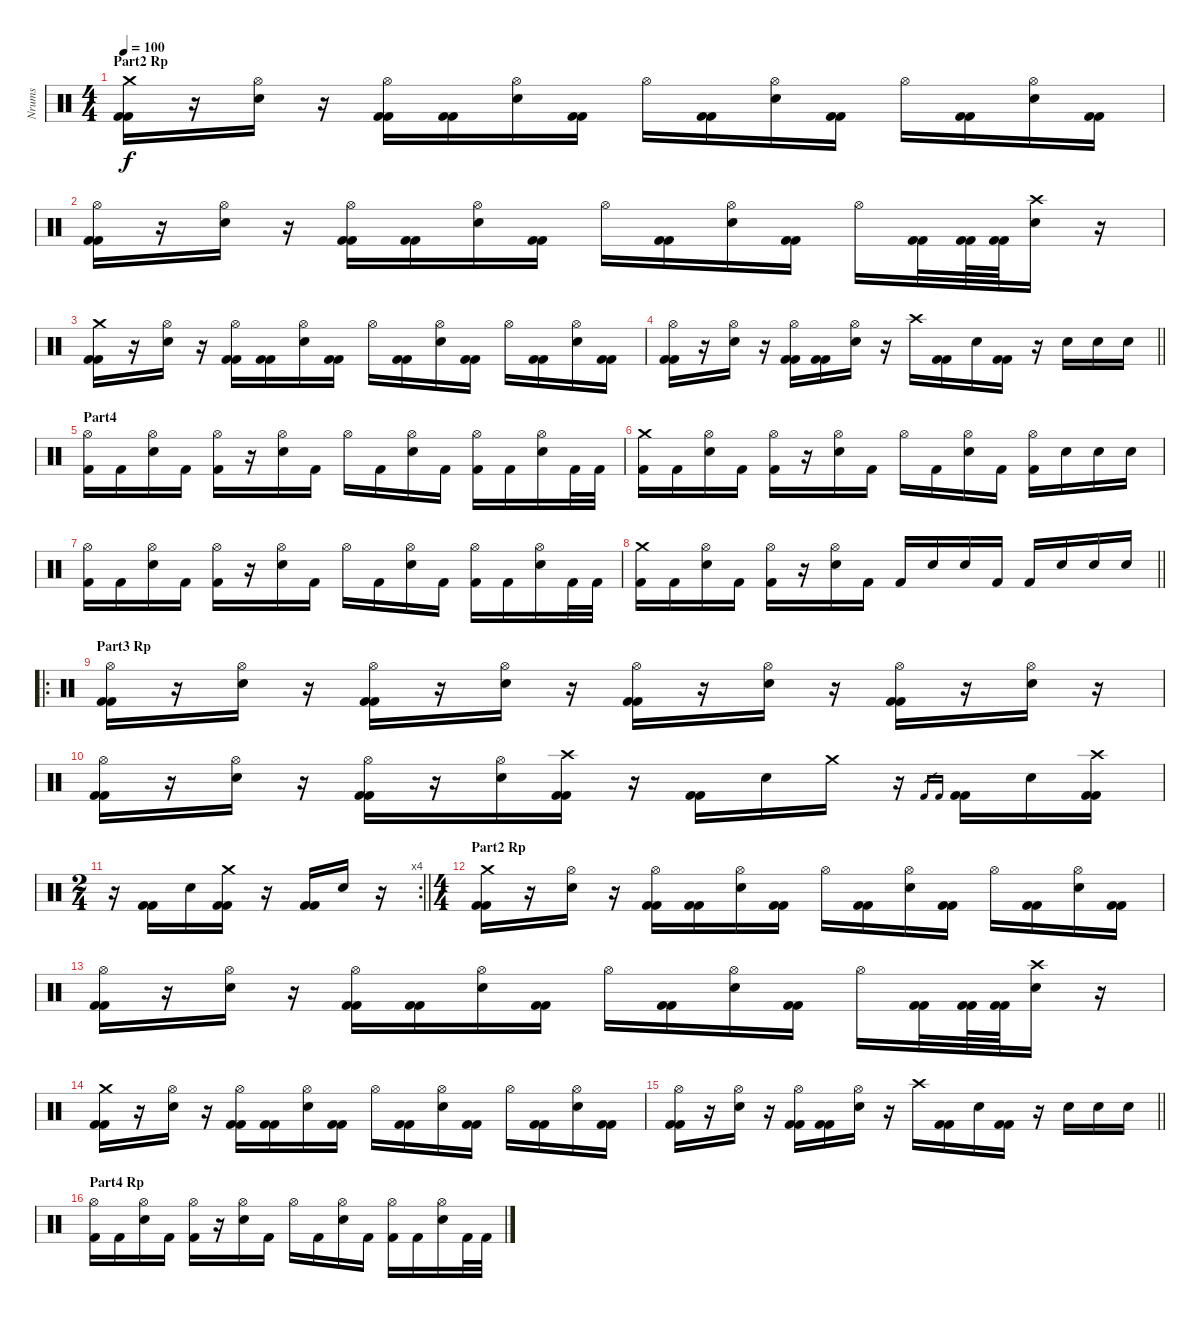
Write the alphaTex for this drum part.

\track ("Nrums" "Nrums") {instrument percussion}
\staff {score}
\articulation defaults
\ts (4 4)
\section ("" "Part2 Rp")
\tempo 100
\clef neutral
\ks c
("Crash medium (hit)" "Kick (hit) 2" "Kick (hit) 2").16{dy f} r.16 ("Hi-Hat (open)" "Electric Snare (hit)").16 r.16 ("Hi-Hat (open)" "Kick (hit) 2" "Kick (hit) 2").16 ("Kick (hit) 2" "Kick (hit) 2").16 ("Hi-Hat (open)" "Electric Snare (hit)").16 ("Kick (hit) 2" "Kick (hit) 2").16 "Hi-Hat (open)".16 ("Kick (hit) 2" "Kick (hit) 2").16 ("Hi-Hat (open)" "Electric Snare (hit)").16 ("Kick (hit) 2" "Kick (hit) 2").16 "Hi-Hat (open)".16 ("Kick (hit) 2" "Kick (hit) 2").16 ("Hi-Hat (open)" "Electric Snare (hit)").16 ("Kick (hit) 2" "Kick (hit) 2").16 |
("Hi-Hat (open)" "Kick (hit) 2" "Kick (hit) 2").16 r.16 ("Hi-Hat (open)" "Electric Snare (hit)").16 r.16 ("Hi-Hat (open)" "Kick (hit) 2" "Kick (hit) 2").16 ("Kick (hit) 2" "Kick (hit) 2").16 ("Hi-Hat (open)" "Electric Snare (hit)").16 ("Kick (hit) 2" "Kick (hit) 2").16 "Hi-Hat (open)".16 ("Kick (hit) 2" "Kick (hit) 2").16 ("Hi-Hat (open)" "Electric Snare (hit)").16 ("Kick (hit) 2" "Kick (hit) 2").16 "Hi-Hat (open)".16 ("Kick (hit) 2" "Kick (hit) 2").32 ("Kick (hit) 2" "Kick (hit) 2").64 ("Kick (hit) 2" "Kick (hit) 2").64 ("Crash high (hit)" "Electric Snare (hit)").16 r.16 |
("Crash medium (hit)" "Kick (hit) 2" "Kick (hit) 2").16 r.16 ("Hi-Hat (open)" "Electric Snare (hit)").16 r.16 ("Hi-Hat (open)" "Kick (hit) 2" "Kick (hit) 2").16 ("Kick (hit) 2" "Kick (hit) 2").16 ("Hi-Hat (open)" "Electric Snare (hit)").16 ("Kick (hit) 2" "Kick (hit) 2").16 "Hi-Hat (open)".16 ("Kick (hit) 2" "Kick (hit) 2").16 ("Hi-Hat (open)" "Electric Snare (hit)").16 ("Kick (hit) 2" "Kick (hit) 2").16 "Hi-Hat (open)".16 ("Kick (hit) 2" "Kick (hit) 2").16 ("Hi-Hat (open)" "Electric Snare (hit)").16 ("Kick (hit) 2" "Kick (hit) 2").16 |
\barLineRight lightlight
("Hi-Hat (open)" "Kick (hit) 2" "Kick (hit) 2").16 r.16 ("Hi-Hat (open)" "Electric Snare (hit)").16 r.16 ("Hi-Hat (open)" "Kick (hit) 2" "Kick (hit) 2").16 ("Kick (hit) 2" "Kick (hit) 2").16 ("Hi-Hat (open)" "Electric Snare (hit)").16 r.16 "Crash high (hit)".16 ("Kick (hit) 2" "Kick (hit) 2").16 "Electric Snare (hit)".16 ("Kick (hit) 2" "Kick (hit) 2").16 r.16 "Electric Snare (hit)".16 "Electric Snare (hit)".16 "Electric Snare (hit)".16 |
\section ("" "Part4")
("Hi-Hat (open)" "Kick (hit) 2").16 "Kick (hit) 2".16 ("Hi-Hat (open)" "Electric Snare (hit)").16 "Kick (hit) 2".16 ("Hi-Hat (open)" "Kick (hit) 2").16 r.16 ("Hi-Hat (open)" "Electric Snare (hit)").16 "Kick (hit) 2".16 "Hi-Hat (open)".16 "Kick (hit) 2".16 ("Hi-Hat (open)" "Electric Snare (hit)").16 "Kick (hit) 2".16 ("Hi-Hat (open)" "Kick (hit) 2").16 "Kick (hit) 2".16 ("Hi-Hat (open)" "Electric Snare (hit)").16 "Kick (hit) 2".32 "Kick (hit) 2".32 |
("Crash medium (hit)" "Kick (hit) 2").16 "Kick (hit) 2".16 ("Hi-Hat (open)" "Electric Snare (hit)").16 "Kick (hit) 2".16 ("Hi-Hat (open)" "Kick (hit) 2").16 r.16 ("Hi-Hat (open)" "Electric Snare (hit)").16 "Kick (hit) 2".16 "Hi-Hat (open)".16 "Kick (hit) 2".16 ("Hi-Hat (open)" "Electric Snare (hit)").16 "Kick (hit) 2".16 ("Hi-Hat (open)" "Kick (hit) 2").16 "Electric Snare (hit)".16 "Electric Snare (hit)".16 "Electric Snare (hit)".16 |
("Hi-Hat (open)" "Kick (hit) 2").16 "Kick (hit) 2".16 ("Hi-Hat (open)" "Electric Snare (hit)").16 "Kick (hit) 2".16 ("Hi-Hat (open)" "Kick (hit) 2").16 r.16 ("Hi-Hat (open)" "Electric Snare (hit)").16 "Kick (hit) 2".16 "Hi-Hat (open)".16 "Kick (hit) 2".16 ("Hi-Hat (open)" "Electric Snare (hit)").16 "Kick (hit) 2".16 ("Hi-Hat (open)" "Kick (hit) 2").16 "Kick (hit) 2".16 ("Hi-Hat (open)" "Electric Snare (hit)").16 "Kick (hit) 2".32 "Kick (hit) 2".32 |
\barLineRight lightlight
("Crash medium (hit)" "Kick (hit) 2").16 "Kick (hit) 2".16 ("Hi-Hat (open)" "Electric Snare (hit)").16 "Kick (hit) 2".16 ("Hi-Hat (open)" "Kick (hit) 2").16 r.16 ("Hi-Hat (open)" "Electric Snare (hit)").16 "Kick (hit) 2".16 "Kick (hit) 2".16 "Electric Snare (hit)".16 "Electric Snare (hit)".16 "Kick (hit) 2".16 "Kick (hit) 2".16 "Electric Snare (hit)".16 "Electric Snare (hit)".16 "Electric Snare (hit)".16 |
\ro
\section ("" "Part3 Rp")
("Hi-Hat (open)" "Kick (hit) 2" "Kick (hit) 2").16 r.16 ("Hi-Hat (open)" "Electric Snare (hit)").16 r.16 ("Hi-Hat (open)" "Kick (hit) 2" "Kick (hit) 2").16 r.16 ("Hi-Hat (open)" "Electric Snare (hit)").16 r.16 ("Hi-Hat (open)" "Kick (hit) 2" "Kick (hit) 2").16 r.16 ("Hi-Hat (open)" "Electric Snare (hit)").16 r.16 ("Hi-Hat (open)" "Kick (hit) 2" "Kick (hit) 2").16 r.16 ("Hi-Hat (open)" "Electric Snare (hit)").16 r.16 |
("Hi-Hat (open)" "Kick (hit) 2" "Kick (hit) 2").16 r.16 ("Hi-Hat (open)" "Electric Snare (hit)").16 r.16 ("Hi-Hat (open)" "Kick (hit) 2" "Kick (hit) 2").16 r.16 ("Hi-Hat (open)" "Electric Snare (hit)").16 ("Crash high (hit)" "Kick (hit) 2" "Kick (hit) 2").16 r.16 ("Kick (hit) 2" "Kick (hit) 2").16 "Electric Snare (hit)".16 "Crash medium (hit)".16 r.16 "Kick (hit) 2".16{gr} "Kick (hit) 2".16{gr} ("Kick (hit) 2" "Kick (hit) 2").16 "Electric Snare (hit)".16 ("Crash high (hit)" "Kick (hit) 2" "Kick (hit) 2").16 |
\rc 4
\ts (2 4)
\barLineRight lightlight
r.16 ("Kick (hit) 2" "Kick (hit) 2").16 "Electric Snare (hit)".16 ("Crash medium (hit)" "Kick (hit) 2" "Kick (hit) 2").16 r.16 ("Kick (hit) 2" "Kick (hit) 2").16 "Electric Snare (hit)".16 r.16 |
\ts (4 4)
\section ("" "Part2 Rp")
("Crash medium (hit)" "Kick (hit) 2" "Kick (hit) 2").16 r.16 ("Hi-Hat (open)" "Electric Snare (hit)").16 r.16 ("Hi-Hat (open)" "Kick (hit) 2" "Kick (hit) 2").16 ("Kick (hit) 2" "Kick (hit) 2").16 ("Hi-Hat (open)" "Electric Snare (hit)").16 ("Kick (hit) 2" "Kick (hit) 2").16 "Hi-Hat (open)".16 ("Kick (hit) 2" "Kick (hit) 2").16 ("Hi-Hat (open)" "Electric Snare (hit)").16 ("Kick (hit) 2" "Kick (hit) 2").16 "Hi-Hat (open)".16 ("Kick (hit) 2" "Kick (hit) 2").16 ("Hi-Hat (open)" "Electric Snare (hit)").16 ("Kick (hit) 2" "Kick (hit) 2").16 |
("Hi-Hat (open)" "Kick (hit) 2" "Kick (hit) 2").16 r.16 ("Hi-Hat (open)" "Electric Snare (hit)").16 r.16 ("Hi-Hat (open)" "Kick (hit) 2" "Kick (hit) 2").16 ("Kick (hit) 2" "Kick (hit) 2").16 ("Hi-Hat (open)" "Electric Snare (hit)").16 ("Kick (hit) 2" "Kick (hit) 2").16 "Hi-Hat (open)".16 ("Kick (hit) 2" "Kick (hit) 2").16 ("Hi-Hat (open)" "Electric Snare (hit)").16 ("Kick (hit) 2" "Kick (hit) 2").16 "Hi-Hat (open)".16 ("Kick (hit) 2" "Kick (hit) 2").32 ("Kick (hit) 2" "Kick (hit) 2").64 ("Kick (hit) 2" "Kick (hit) 2").64 ("Crash high (hit)" "Electric Snare (hit)").16 r.16 |
("Crash medium (hit)" "Kick (hit) 2" "Kick (hit) 2").16 r.16 ("Hi-Hat (open)" "Electric Snare (hit)").16 r.16 ("Hi-Hat (open)" "Kick (hit) 2" "Kick (hit) 2").16 ("Kick (hit) 2" "Kick (hit) 2").16 ("Hi-Hat (open)" "Electric Snare (hit)").16 ("Kick (hit) 2" "Kick (hit) 2").16 "Hi-Hat (open)".16 ("Kick (hit) 2" "Kick (hit) 2").16 ("Hi-Hat (open)" "Electric Snare (hit)").16 ("Kick (hit) 2" "Kick (hit) 2").16 "Hi-Hat (open)".16 ("Kick (hit) 2" "Kick (hit) 2").16 ("Hi-Hat (open)" "Electric Snare (hit)").16 ("Kick (hit) 2" "Kick (hit) 2").16 |
\barLineRight lightlight
("Hi-Hat (open)" "Kick (hit) 2" "Kick (hit) 2").16 r.16 ("Hi-Hat (open)" "Electric Snare (hit)").16 r.16 ("Hi-Hat (open)" "Kick (hit) 2" "Kick (hit) 2").16 ("Kick (hit) 2" "Kick (hit) 2").16 ("Hi-Hat (open)" "Electric Snare (hit)").16 r.16 "Crash high (hit)".16 ("Kick (hit) 2" "Kick (hit) 2").16 "Electric Snare (hit)".16 ("Kick (hit) 2" "Kick (hit) 2").16 r.16 "Electric Snare (hit)".16 "Electric Snare (hit)".16 "Electric Snare (hit)".16 |
\section ("" "Part4 Rp")
("Hi-Hat (open)" "Kick (hit) 2").16 "Kick (hit) 2".16 ("Hi-Hat (open)" "Electric Snare (hit)").16 "Kick (hit) 2".16 ("Hi-Hat (open)" "Kick (hit) 2").16 r.16 ("Hi-Hat (open)" "Electric Snare (hit)").16 "Kick (hit) 2".16 "Hi-Hat (open)".16 "Kick (hit) 2".16 ("Hi-Hat (open)" "Electric Snare (hit)").16 "Kick (hit) 2".16 ("Hi-Hat (open)" "Kick (hit) 2").16 "Kick (hit) 2".16 ("Hi-Hat (open)" "Electric Snare (hit)").16 "Kick (hit) 2".32 "Kick (hit) 2".32
